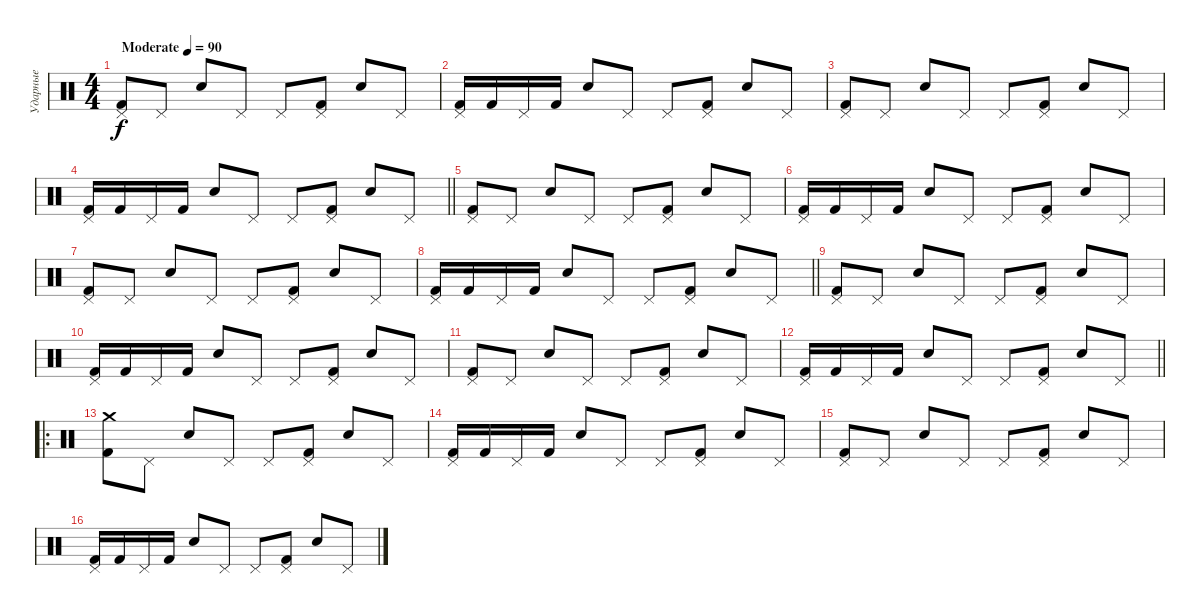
\track ("Ударные" "Ударные") {instrument percussion}
\staff {score}
\articulation defaults
\ts (4 4)
\tempo (90 "Moderate")
\clef neutral
\ks c
("Pedal Hi-Hat (hit)" "Kick (hit) 2").8{dy f} "Pedal Hi-Hat (hit)".8 "Electric Snare (hit)".8 "Pedal Hi-Hat (hit)".8 "Pedal Hi-Hat (hit)".8 ("Pedal Hi-Hat (hit)" "Kick (hit) 2").8 "Electric Snare (hit)".8 "Pedal Hi-Hat (hit)".8 |
("Pedal Hi-Hat (hit)" "Kick (hit) 2").16 "Kick (hit) 2".16 "Pedal Hi-Hat (hit)".16 "Kick (hit) 2".16 "Electric Snare (hit)".8 "Pedal Hi-Hat (hit)".8 "Pedal Hi-Hat (hit)".8 ("Pedal Hi-Hat (hit)" "Kick (hit) 2").8 "Electric Snare (hit)".8 "Pedal Hi-Hat (hit)".8 |
("Pedal Hi-Hat (hit)" "Kick (hit) 2").8 "Pedal Hi-Hat (hit)".8 "Electric Snare (hit)".8 "Pedal Hi-Hat (hit)".8 "Pedal Hi-Hat (hit)".8 ("Pedal Hi-Hat (hit)" "Kick (hit) 2").8 "Electric Snare (hit)".8 "Pedal Hi-Hat (hit)".8 |
\barLineRight lightlight
("Pedal Hi-Hat (hit)" "Kick (hit) 2").16 "Kick (hit) 2".16 "Pedal Hi-Hat (hit)".16 "Kick (hit) 2".16 "Electric Snare (hit)".8 "Pedal Hi-Hat (hit)".8 "Pedal Hi-Hat (hit)".8 ("Pedal Hi-Hat (hit)" "Kick (hit) 2").8 "Electric Snare (hit)".8 "Pedal Hi-Hat (hit)".8 |
("Pedal Hi-Hat (hit)" "Kick (hit) 2").8 "Pedal Hi-Hat (hit)".8 "Electric Snare (hit)".8 "Pedal Hi-Hat (hit)".8 "Pedal Hi-Hat (hit)".8 ("Pedal Hi-Hat (hit)" "Kick (hit) 2").8 "Electric Snare (hit)".8 "Pedal Hi-Hat (hit)".8 |
("Pedal Hi-Hat (hit)" "Kick (hit) 2").16 "Kick (hit) 2".16 "Pedal Hi-Hat (hit)".16 "Kick (hit) 2".16 "Electric Snare (hit)".8 "Pedal Hi-Hat (hit)".8 "Pedal Hi-Hat (hit)".8 ("Pedal Hi-Hat (hit)" "Kick (hit) 2").8 "Electric Snare (hit)".8 "Pedal Hi-Hat (hit)".8 |
("Pedal Hi-Hat (hit)" "Kick (hit) 2").8 "Pedal Hi-Hat (hit)".8 "Electric Snare (hit)".8 "Pedal Hi-Hat (hit)".8 "Pedal Hi-Hat (hit)".8 ("Pedal Hi-Hat (hit)" "Kick (hit) 2").8 "Electric Snare (hit)".8 "Pedal Hi-Hat (hit)".8 |
\barLineRight lightlight
("Pedal Hi-Hat (hit)" "Kick (hit) 2").16 "Kick (hit) 2".16 "Pedal Hi-Hat (hit)".16 "Kick (hit) 2".16 "Electric Snare (hit)".8 "Pedal Hi-Hat (hit)".8 "Pedal Hi-Hat (hit)".8 ("Pedal Hi-Hat (hit)" "Kick (hit) 2").8 "Electric Snare (hit)".8 "Pedal Hi-Hat (hit)".8 |
("Pedal Hi-Hat (hit)" "Kick (hit) 2").8 "Pedal Hi-Hat (hit)".8 "Electric Snare (hit)".8 "Pedal Hi-Hat (hit)".8 "Pedal Hi-Hat (hit)".8 ("Pedal Hi-Hat (hit)" "Kick (hit) 2").8 "Electric Snare (hit)".8 "Pedal Hi-Hat (hit)".8 |
("Pedal Hi-Hat (hit)" "Kick (hit) 2").16 "Kick (hit) 2".16 "Pedal Hi-Hat (hit)".16 "Kick (hit) 2".16 "Electric Snare (hit)".8 "Pedal Hi-Hat (hit)".8 "Pedal Hi-Hat (hit)".8 ("Pedal Hi-Hat (hit)" "Kick (hit) 2").8 "Electric Snare (hit)".8 "Pedal Hi-Hat (hit)".8 |
("Pedal Hi-Hat (hit)" "Kick (hit) 2").8 "Pedal Hi-Hat (hit)".8 "Electric Snare (hit)".8 "Pedal Hi-Hat (hit)".8 "Pedal Hi-Hat (hit)".8 ("Pedal Hi-Hat (hit)" "Kick (hit) 2").8 "Electric Snare (hit)".8 "Pedal Hi-Hat (hit)".8 |
\barLineRight lightlight
("Pedal Hi-Hat (hit)" "Kick (hit) 2").16 "Kick (hit) 2".16 "Pedal Hi-Hat (hit)".16 "Kick (hit) 2".16 "Electric Snare (hit)".8 "Pedal Hi-Hat (hit)".8 "Pedal Hi-Hat (hit)".8 ("Pedal Hi-Hat (hit)" "Kick (hit) 2").8 "Electric Snare (hit)".8 "Pedal Hi-Hat (hit)".8 |
\ro
("Crash medium (hit)" "Kick (hit) 2").8 "Pedal Hi-Hat (hit)".8 "Electric Snare (hit)".8 "Pedal Hi-Hat (hit)".8 "Pedal Hi-Hat (hit)".8 ("Pedal Hi-Hat (hit)" "Kick (hit) 2").8 "Electric Snare (hit)".8 "Pedal Hi-Hat (hit)".8 |
("Pedal Hi-Hat (hit)" "Kick (hit) 2").16 "Kick (hit) 2".16 "Pedal Hi-Hat (hit)".16 "Kick (hit) 2".16 "Electric Snare (hit)".8 "Pedal Hi-Hat (hit)".8 "Pedal Hi-Hat (hit)".8 ("Pedal Hi-Hat (hit)" "Kick (hit) 2").8 "Electric Snare (hit)".8 "Pedal Hi-Hat (hit)".8 |
("Pedal Hi-Hat (hit)" "Kick (hit) 2").8 "Pedal Hi-Hat (hit)".8 "Electric Snare (hit)".8 "Pedal Hi-Hat (hit)".8 "Pedal Hi-Hat (hit)".8 ("Pedal Hi-Hat (hit)" "Kick (hit) 2").8 "Electric Snare (hit)".8 "Pedal Hi-Hat (hit)".8 |
("Pedal Hi-Hat (hit)" "Kick (hit) 2").16 "Kick (hit) 2".16 "Pedal Hi-Hat (hit)".16 "Kick (hit) 2".16 "Electric Snare (hit)".8 "Pedal Hi-Hat (hit)".8 "Pedal Hi-Hat (hit)".8 ("Pedal Hi-Hat (hit)" "Kick (hit) 2").8 "Electric Snare (hit)".8 "Pedal Hi-Hat (hit)".8
